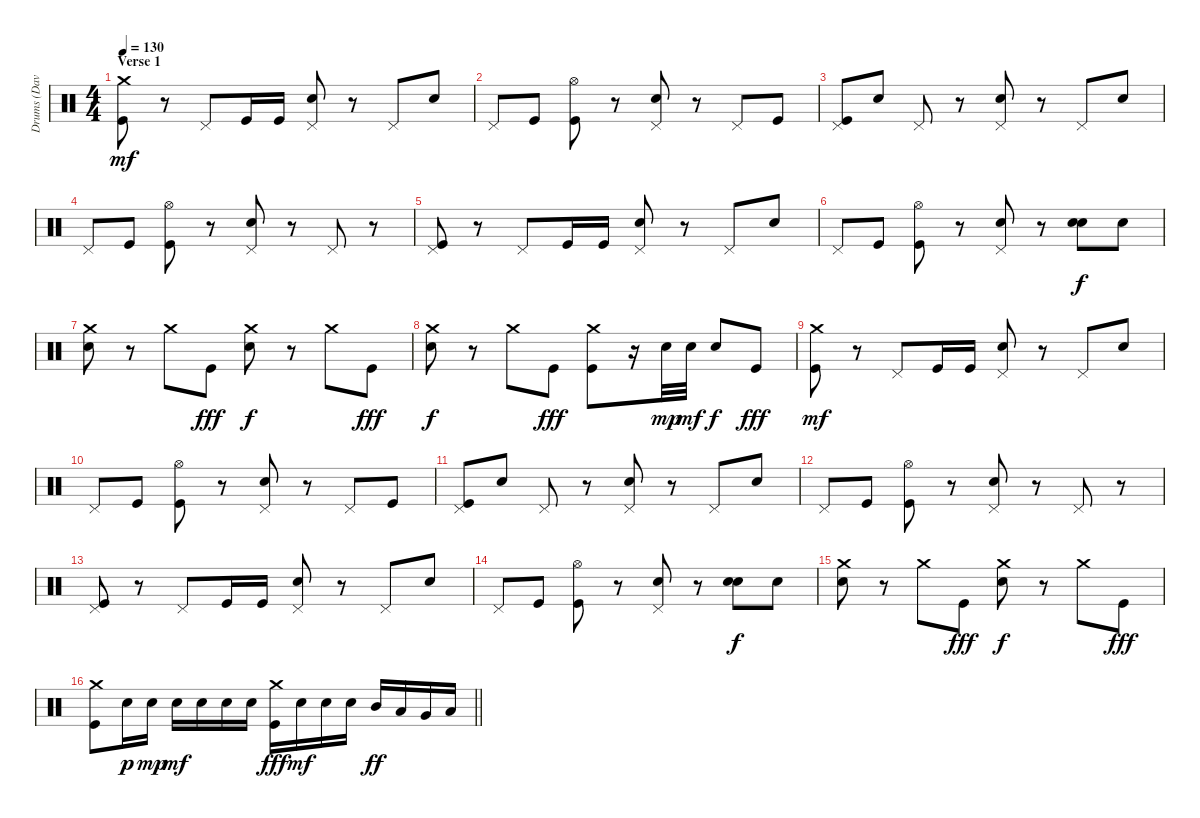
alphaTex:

\track ("Drums (Dave Chavarri)" "Drums (Dav") {instrument percussion}
\staff {score}
\articulation defaults
\ts (4 4)
\section ("" "Verse 1")
\tempo 130
\clef neutral
\ks c
("Crash medium (hit)" "Kick (hit)").8{dy mf} r.8 "Pedal Hi-Hat (hit)".8 "Kick (hit)".16 "Kick (hit)".16 ("Pedal Hi-Hat (hit)" "Electric Snare (hit)").8 r.8 "Pedal Hi-Hat (hit)".8 "Electric Snare (hit)".8 |
"Pedal Hi-Hat (hit)".8 "Kick (hit)".8 ("Hi-Hat (open)" "Kick (hit)").8 r.8 ("Pedal Hi-Hat (hit)" "Electric Snare (hit)").8 r.8 "Pedal Hi-Hat (hit)".8 "Kick (hit)".8 |
("Pedal Hi-Hat (hit)" "Kick (hit)").8 "Electric Snare (hit)".8 "Pedal Hi-Hat (hit)".8 r.8 ("Pedal Hi-Hat (hit)" "Electric Snare (hit)").8 r.8 "Pedal Hi-Hat (hit)".8 "Electric Snare (hit)".8 |
"Pedal Hi-Hat (hit)".8 "Kick (hit)".8 ("Hi-Hat (open)" "Kick (hit)").8 r.8 ("Pedal Hi-Hat (hit)" "Electric Snare (hit)").8 r.8 "Pedal Hi-Hat (hit)".8 r.8 |
("Pedal Hi-Hat (hit)" "Kick (hit)").8 r.8 "Pedal Hi-Hat (hit)".8 "Kick (hit)".16 "Kick (hit)".16 ("Pedal Hi-Hat (hit)" "Electric Snare (hit)").8 r.8 "Pedal Hi-Hat (hit)".8 "Electric Snare (hit)".8 |
"Pedal Hi-Hat (hit)".8 "Kick (hit)".8 ("Hi-Hat (open)" "Kick (hit)").8 r.8 ("Pedal Hi-Hat (hit)" "Electric Snare (hit)").8 r.8 ("Electric Snare (hit)" "Electric Snare (hit)").8{bd 120 dy f} "Electric Snare (hit)".8 |
("Crash medium (hit)" "Electric Snare (hit)").8 r.8 "Crash medium (hit)".8 "Kick (hit)".8{dy fff} ("Crash medium (hit)" "Electric Snare (hit)").8{dy f} r.8 "Crash medium (hit)".8 "Kick (hit)".8{dy fff} |
("Crash medium (hit)" "Electric Snare (hit)").8{dy f} r.8 "Crash medium (hit)".8 "Kick (hit)".8{dy fff} ("Crash medium (hit)" "Kick (hit)").8 r.16 "Electric Snare (hit)".32{dy mp} "Electric Snare (hit)".32{dy mf} "Electric Snare (hit)".8{dy f} "Kick (hit)".8{dy fff} |
("Crash medium (hit)" "Kick (hit)").8{dy mf} r.8 "Pedal Hi-Hat (hit)".8 "Kick (hit)".16 "Kick (hit)".16 ("Pedal Hi-Hat (hit)" "Electric Snare (hit)").8 r.8 "Pedal Hi-Hat (hit)".8 "Electric Snare (hit)".8 |
"Pedal Hi-Hat (hit)".8 "Kick (hit)".8 ("Hi-Hat (open)" "Kick (hit)").8 r.8 ("Pedal Hi-Hat (hit)" "Electric Snare (hit)").8 r.8 "Pedal Hi-Hat (hit)".8 "Kick (hit)".8 |
("Pedal Hi-Hat (hit)" "Kick (hit)").8 "Electric Snare (hit)".8 "Pedal Hi-Hat (hit)".8 r.8 ("Pedal Hi-Hat (hit)" "Electric Snare (hit)").8 r.8 "Pedal Hi-Hat (hit)".8 "Electric Snare (hit)".8 |
"Pedal Hi-Hat (hit)".8 "Kick (hit)".8 ("Hi-Hat (open)" "Kick (hit)").8 r.8 ("Pedal Hi-Hat (hit)" "Electric Snare (hit)").8 r.8 "Pedal Hi-Hat (hit)".8 r.8 |
("Pedal Hi-Hat (hit)" "Kick (hit)").8 r.8 "Pedal Hi-Hat (hit)".8 "Kick (hit)".16 "Kick (hit)".16 ("Pedal Hi-Hat (hit)" "Electric Snare (hit)").8 r.8 "Pedal Hi-Hat (hit)".8 "Electric Snare (hit)".8 |
"Pedal Hi-Hat (hit)".8 "Kick (hit)".8 ("Hi-Hat (open)" "Kick (hit)").8 r.8 ("Pedal Hi-Hat (hit)" "Electric Snare (hit)").8 r.8 ("Electric Snare (hit)" "Electric Snare (hit)").8{bd 120 dy f} "Electric Snare (hit)".8 |
("Crash medium (hit)" "Electric Snare (hit)").8 r.8 "Crash medium (hit)".8 "Kick (hit)".8{dy fff} ("Crash medium (hit)" "Electric Snare (hit)").8{dy f} r.8 "Crash medium (hit)".8 "Kick (hit)".8{dy fff} |
\barLineRight lightlight
("Crash medium (hit)" "Kick (hit)").8 "Electric Snare (hit)".16{dy p} "Electric Snare (hit)".16{dy mp} "Electric Snare (hit)".16{dy mf} "Electric Snare (hit)".16 "Electric Snare (hit)".16 "Electric Snare (hit)".16 ("Crash medium (hit)" "Kick (hit)").16{dy fff} "Electric Snare (hit)".16{dy mf} "Electric Snare (hit)".16 "Electric Snare (hit)".16 "Mid Tom (hit)".16{dy ff} "Low Tom (hit)".16 "Very Low Tom (hit)".16 "Low Floor Tom (hit)".16
